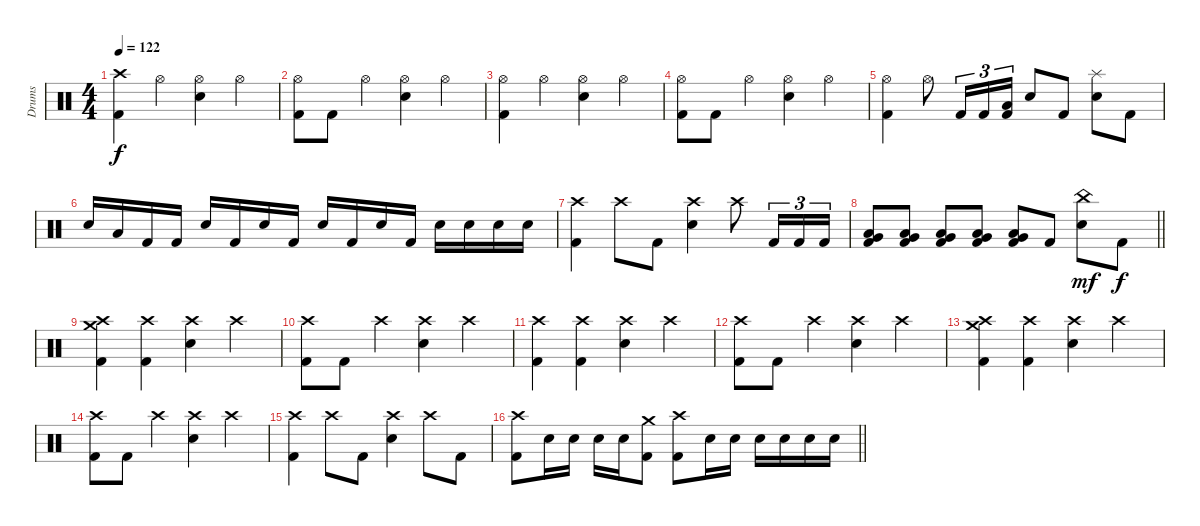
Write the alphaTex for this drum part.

\track ("Drums" "Drums") {instrument percussion}
\staff {score}
\articulation defaults
\ts (4 4)
\tempo 122
\clef neutral
\ks c
("Crash high (hit)" "Kick (hit) 2").4{dy f} "Hi-Hat (open)".4 ("Hi-Hat (open)" "Electric Snare (hit)").4 "Hi-Hat (open)".4 |
("Hi-Hat (open)" "Kick (hit) 2").8 "Kick (hit) 2".8 "Hi-Hat (open)".4 ("Hi-Hat (open)" "Electric Snare (hit)").4 "Hi-Hat (open)".4 |
("Hi-Hat (open)" "Kick (hit) 2").4 "Hi-Hat (open)".4 ("Hi-Hat (open)" "Electric Snare (hit)").4 "Hi-Hat (open)".4 |
("Hi-Hat (open)" "Kick (hit) 2").8 "Kick (hit) 2".8 "Hi-Hat (open)".4 ("Hi-Hat (open)" "Electric Snare (hit)").4 "Hi-Hat (open)".4 |
("Hi-Hat (open)" "Kick (hit) 2").4 "Hi-Hat (open)".8 "Kick (hit) 2".16{tu (3 2)} "Kick (hit) 2".16{tu (3 2)} ("Low Tom (hit)" "Kick (hit) 2").16{tu (3 2)} "Electric Snare (hit)".8 "Kick (hit) 2".8 ("Splash (hit)" "Electric Snare (hit)").8 "Kick (hit) 2".8 |
"Electric Snare (hit)".16 "Low Tom (hit)".16 "Kick (hit) 2".16 "Kick (hit) 2".16 "Electric Snare (hit)".16 "Kick (hit) 2".16 "Electric Snare (hit)".16 "Kick (hit) 2".16 "Electric Snare (hit)".16 "Kick (hit) 2".16 "Electric Snare (hit)".16 "Kick (hit) 2".16 "Electric Snare (hit)".16 "Electric Snare (hit)".16 "Electric Snare (hit)".16 "Electric Snare (hit)".16 |
("Crash high (hit)" "Kick (hit) 2").4 "Crash high (hit)".8 "Kick (hit) 2".8 ("Crash high (hit)" "Electric Snare (hit)").4 "Crash high (hit)".8 "Kick (hit) 2".16{tu (3 2)} "Kick (hit) 2".16{tu (3 2)} "Kick (hit) 2".16{tu (3 2)} |
\barLineRight lightlight
("Low Tom (hit)" "Very Low Tom (hit)" "Kick (hit) 2").8 ("Low Tom (hit)" "Very Low Tom (hit)" "Kick (hit) 2").8 ("Low Tom (hit)" "Very Low Tom (hit)" "Kick (hit) 2").8 ("Low Tom (hit)" "Very Low Tom (hit)" "Kick (hit) 2").8 ("Low Tom (hit)" "Very Low Tom (hit)" "Kick (hit) 2").8 "Kick (hit) 2".8 ("China (hit)" "Electric Snare (hit)").8{dy mf} "Kick (hit) 2".8{dy f} |
("Crash high (hit)" "Crash medium (hit)" "Kick (hit) 2").4 ("Crash high (hit)" "Kick (hit) 2").4 ("Crash high (hit)" "Electric Snare (hit)").4 "Crash high (hit)".4 |
("Crash high (hit)" "Kick (hit) 2").8 "Kick (hit) 2".8 "Crash high (hit)".4 ("Crash high (hit)" "Electric Snare (hit)").4 "Crash high (hit)".4 |
("Crash high (hit)" "Kick (hit) 2").4 ("Crash high (hit)" "Kick (hit) 2").4 ("Crash high (hit)" "Electric Snare (hit)").4 "Crash high (hit)".4 |
("Crash high (hit)" "Kick (hit) 2").8 "Kick (hit) 2".8 "Crash high (hit)".4 ("Crash high (hit)" "Electric Snare (hit)").4 "Crash high (hit)".4 |
("Crash high (hit)" "Crash medium (hit)" "Kick (hit) 2").4 ("Crash high (hit)" "Kick (hit) 2").4 ("Crash high (hit)" "Electric Snare (hit)").4 "Crash high (hit)".4 |
("Crash high (hit)" "Kick (hit) 2").8 "Kick (hit) 2".8 "Crash high (hit)".4 ("Crash high (hit)" "Electric Snare (hit)").4 "Crash high (hit)".4 |
("Crash high (hit)" "Kick (hit) 2").4 "Crash high (hit)".8 "Kick (hit) 2".8 ("Crash high (hit)" "Electric Snare (hit)").4 "Crash high (hit)".8 "Kick (hit) 2".8 |
\barLineRight lightlight
("Crash high (hit)" "Kick (hit) 2").8 "Electric Snare (hit)".16 "Electric Snare (hit)".16 "Electric Snare (hit)".16 "Electric Snare (hit)".16 ("Crash medium (hit)" "Kick (hit) 2").8 ("Crash high (hit)" "Kick (hit) 2").8 "Electric Snare (hit)".16 "Electric Snare (hit)".16 "Electric Snare (hit)".16 "Electric Snare (hit)".16 "Electric Snare (hit)".16 "Electric Snare (hit)".16
